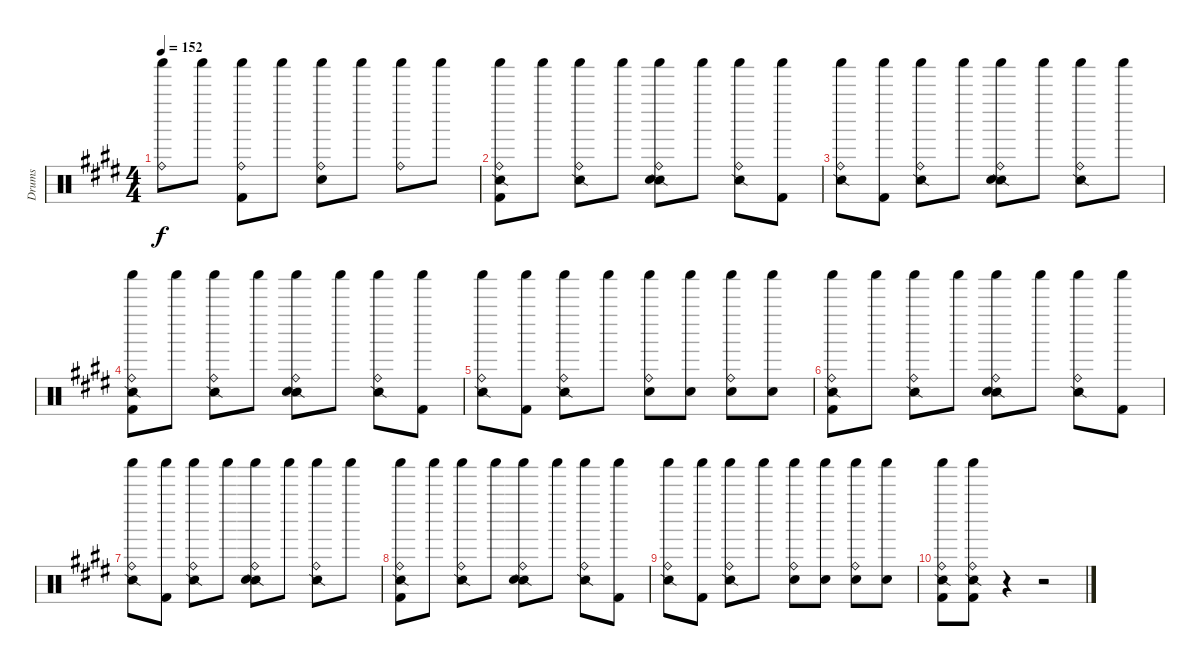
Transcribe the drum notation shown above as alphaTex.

\track ("Drums" "Drums") {instrument percussion}
\staff {score}
\articulation defaults
\ts (4 4)
\tempo 152
\clef neutral
\ks c#minor
("Ride (bell)" "Shaker (hit)").8{dy f} "Shaker (hit)".8 ("Ride (bell)" "Kick (hit) 2" "Shaker (hit)").8 "Shaker (hit)".8 ("Ride (bell)" "Snare (hit) 2" "Shaker (hit)").8 "Shaker (hit)".8 ("Ride (bell)" "Shaker (hit)").8 "Shaker (hit)".8 |
("Snare (side stick) 2" "Ride (bell)" "Kick (hit) 2" "Shaker (hit)").8 "Shaker (hit)".8 ("Snare (side stick) 2" "Ride (bell)" "Shaker (hit)").8 "Shaker (hit)".8 ("Snare (side stick) 2" "Ride (bell)" "Snare (hit) 2" "Shaker (hit)").8 "Shaker (hit)".8 ("Snare (side stick) 2" "Ride (bell)" "Shaker (hit)").8 ("Kick (hit) 2" "Shaker (hit)").8 |
("Snare (side stick) 2" "Ride (bell)" "Shaker (hit)").8 ("Shaker (hit)" "Kick (hit) 2").8 ("Snare (side stick) 2" "Ride (bell)" "Shaker (hit)").8 "Shaker (hit)".8 ("Snare (side stick) 2" "Ride (bell)" "Snare (hit) 2" "Shaker (hit)").8 "Shaker (hit)".8 ("Snare (side stick) 2" "Ride (bell)" "Shaker (hit)").8 "Shaker (hit)".8 |
("Snare (side stick) 2" "Ride (bell)" "Kick (hit) 2" "Shaker (hit)").8 "Shaker (hit)".8 ("Snare (side stick) 2" "Ride (bell)" "Shaker (hit)").8 "Shaker (hit)".8 ("Snare (side stick) 2" "Ride (bell)" "Snare (hit) 2" "Shaker (hit)").8 "Shaker (hit)".8 ("Snare (side stick) 2" "Ride (bell)" "Shaker (hit)").8 ("Kick (hit) 2" "Shaker (hit)").8 |
("Snare (side stick) 2" "Ride (bell)" "Shaker (hit)").8 ("Shaker (hit)" "Kick (hit) 2").8 ("Snare (side stick) 2" "Ride (bell)" "Shaker (hit)").8 "Shaker (hit)".8 ("Ride (bell)" "Snare (hit) 2" "Shaker (hit)").8 ("Snare (hit) 2" "Shaker (hit)").8 ("Snare (hit) 2" "Ride (bell)" "Shaker (hit)").8 ("Snare (hit) 2" "Shaker (hit)").8 |
("Snare (side stick) 2" "Ride (bell)" "Kick (hit) 2" "Shaker (hit)").8 "Shaker (hit)".8 ("Snare (side stick) 2" "Ride (bell)" "Shaker (hit)").8 "Shaker (hit)".8 ("Snare (side stick) 2" "Ride (bell)" "Snare (hit) 2" "Shaker (hit)").8 "Shaker (hit)".8 ("Snare (side stick) 2" "Ride (bell)" "Shaker (hit)").8 ("Kick (hit) 2" "Shaker (hit)").8 |
("Snare (side stick) 2" "Ride (bell)" "Shaker (hit)").8 ("Shaker (hit)" "Kick (hit) 2").8 ("Snare (side stick) 2" "Ride (bell)" "Shaker (hit)").8 "Shaker (hit)".8 ("Snare (side stick) 2" "Ride (bell)" "Snare (hit) 2" "Shaker (hit)").8 "Shaker (hit)".8 ("Snare (side stick) 2" "Ride (bell)" "Shaker (hit)").8 "Shaker (hit)".8 |
("Snare (side stick) 2" "Ride (bell)" "Kick (hit) 2" "Shaker (hit)").8 "Shaker (hit)".8 ("Snare (side stick) 2" "Ride (bell)" "Shaker (hit)").8 "Shaker (hit)".8 ("Snare (side stick) 2" "Ride (bell)" "Snare (hit) 2" "Shaker (hit)").8 "Shaker (hit)".8 ("Snare (side stick) 2" "Ride (bell)" "Shaker (hit)").8 ("Kick (hit) 2" "Shaker (hit)").8 |
("Snare (side stick) 2" "Ride (bell)" "Shaker (hit)").8 ("Shaker (hit)" "Kick (hit) 2").8 ("Snare (side stick) 2" "Ride (bell)" "Shaker (hit)").8 "Shaker (hit)".8 ("Ride (bell)" "Snare (hit) 2" "Shaker (hit)").8 ("Snare (hit) 2" "Shaker (hit)").8 ("Snare (hit) 2" "Ride (bell)" "Shaker (hit)").8 ("Snare (hit) 2" "Shaker (hit)").8 |
("Snare (side stick) 2" "Ride (bell)" "Kick (hit) 2" "Shaker (hit)").8 ("Snare (side stick) 2" "Ride (bell)" "Kick (hit) 2" "Shaker (hit)").8 r.4 r.2
